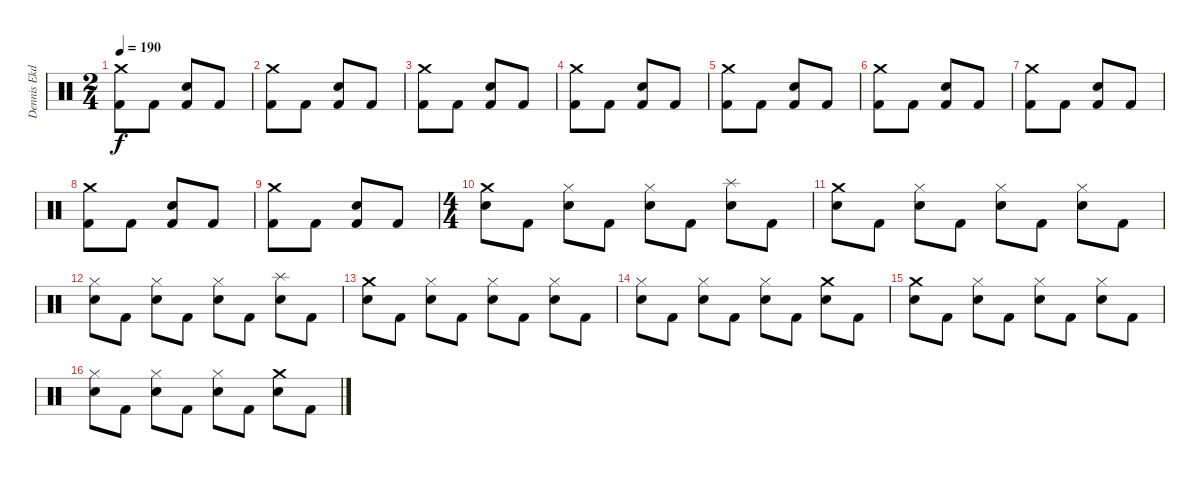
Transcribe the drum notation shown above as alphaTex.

\track ("Dennis Ekdahl" "Dennis Ekd") {instrument percussion}
\staff {score}
\articulation defaults
\ts (2 4)
\tempo 190
\clef neutral
\ks c
("Crash medium (hit)" "Kick (hit) 2").8{dy f} "Kick (hit) 2".8 ("Snare (hit) 2" "Kick (hit) 2").8 "Kick (hit) 2".8 |
("Crash medium (hit)" "Kick (hit) 2").8 "Kick (hit) 2".8 ("Snare (hit) 2" "Kick (hit) 2").8 "Kick (hit) 2".8 |
("Crash medium (hit)" "Kick (hit) 2").8 "Kick (hit) 2".8 ("Snare (hit) 2" "Kick (hit) 2").8 "Kick (hit) 2".8 |
("Crash medium (hit)" "Kick (hit) 2").8 "Kick (hit) 2".8 ("Snare (hit) 2" "Kick (hit) 2").8 "Kick (hit) 2".8 |
("Crash medium (hit)" "Kick (hit) 2").8 "Kick (hit) 2".8 ("Snare (hit) 2" "Kick (hit) 2").8 "Kick (hit) 2".8 |
("Crash medium (hit)" "Kick (hit) 2").8 "Kick (hit) 2".8 ("Snare (hit) 2" "Kick (hit) 2").8 "Kick (hit) 2".8 |
("Crash medium (hit)" "Kick (hit) 2").8 "Kick (hit) 2".8 ("Snare (hit) 2" "Kick (hit) 2").8 "Kick (hit) 2".8 |
("Crash medium (hit)" "Kick (hit) 2").8 "Kick (hit) 2".8 ("Snare (hit) 2" "Kick (hit) 2").8 "Kick (hit) 2".8 |
("Crash medium (hit)" "Kick (hit) 2").8 "Kick (hit) 2".8 ("Snare (hit) 2" "Kick (hit) 2").8 "Kick (hit) 2".8 |
\ts (4 4)
("Crash medium (hit)" "Snare (hit) 2").8 "Kick (hit) 2".8 ("Hi-Hat (closed)" "Snare (hit) 2").8 "Kick (hit) 2".8 ("Hi-Hat (closed)" "Snare (hit) 2").8 "Kick (hit) 2".8 ("Splash (hit)" "Snare (hit) 2").8 "Kick (hit) 2".8 |
("Crash medium (hit)" "Snare (hit) 2").8 "Kick (hit) 2".8 ("Hi-Hat (closed)" "Snare (hit) 2").8 "Kick (hit) 2".8 ("Hi-Hat (closed)" "Snare (hit) 2").8 "Kick (hit) 2".8 ("Hi-Hat (closed)" "Snare (hit) 2").8 "Kick (hit) 2".8 |
("Hi-Hat (closed)" "Snare (hit) 2").8 "Kick (hit) 2".8 ("Hi-Hat (closed)" "Snare (hit) 2").8 "Kick (hit) 2".8 ("Hi-Hat (closed)" "Snare (hit) 2").8 "Kick (hit) 2".8 ("Splash (hit)" "Snare (hit) 2").8 "Kick (hit) 2".8 |
("Crash medium (hit)" "Snare (hit) 2").8 "Kick (hit) 2".8 ("Hi-Hat (closed)" "Snare (hit) 2").8 "Kick (hit) 2".8 ("Hi-Hat (closed)" "Snare (hit) 2").8 "Kick (hit) 2".8 ("Hi-Hat (closed)" "Snare (hit) 2").8 "Kick (hit) 2".8 |
("Hi-Hat (closed)" "Snare (hit) 2").8 "Kick (hit) 2".8 ("Hi-Hat (closed)" "Snare (hit) 2").8 "Kick (hit) 2".8 ("Hi-Hat (closed)" "Snare (hit) 2").8 "Kick (hit) 2".8 ("Crash medium (hit)" "Snare (hit) 2").8 "Kick (hit) 2".8 |
("Crash medium (hit)" "Snare (hit) 2").8 "Kick (hit) 2".8 ("Hi-Hat (closed)" "Snare (hit) 2").8 "Kick (hit) 2".8 ("Hi-Hat (closed)" "Snare (hit) 2").8 "Kick (hit) 2".8 ("Hi-Hat (closed)" "Snare (hit) 2").8 "Kick (hit) 2".8 |
("Hi-Hat (closed)" "Snare (hit) 2").8 "Kick (hit) 2".8 ("Hi-Hat (closed)" "Snare (hit) 2").8 "Kick (hit) 2".8 ("Hi-Hat (closed)" "Snare (hit) 2").8 "Kick (hit) 2".8 ("Crash medium (hit)" "Snare (hit) 2").8 "Kick (hit) 2".8
